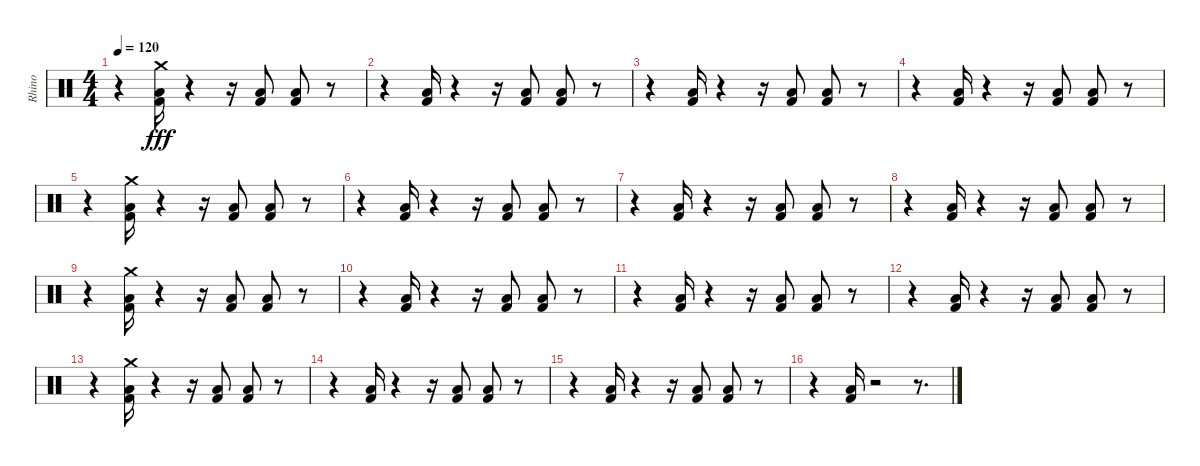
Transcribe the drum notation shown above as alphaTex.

\track ("Rhino" "Rhino") {instrument percussion}
\staff {score}
\articulation defaults
\ts (4 4)
\tempo 120
\tempo 92
\tempo 120
\clef neutral
\ks c
r.4{dy fff} ("Crash medium (hit)" "Low Floor Tom (hit)" "Kick (hit) 2").16 r.4 r.16 ("Low Floor Tom (hit)" "Kick (hit) 2").8 ("Low Floor Tom (hit)" "Kick (hit) 2").8 r.8 |
r.4 ("Low Floor Tom (hit)" "Kick (hit) 2").16 r.4 r.16 ("Low Floor Tom (hit)" "Kick (hit) 2").8 ("Low Floor Tom (hit)" "Kick (hit) 2").8 r.8 |
r.4 ("Low Floor Tom (hit)" "Kick (hit) 2").16 r.4 r.16 ("Low Floor Tom (hit)" "Kick (hit) 2").8 ("Low Floor Tom (hit)" "Kick (hit) 2").8 r.8 |
r.4 ("Low Floor Tom (hit)" "Kick (hit) 2").16 r.4 r.16 ("Low Floor Tom (hit)" "Kick (hit) 2").8 ("Low Floor Tom (hit)" "Kick (hit) 2").8 r.8 |
r.4 ("Crash medium (hit)" "Low Floor Tom (hit)" "Kick (hit) 2").16 r.4 r.16 ("Low Floor Tom (hit)" "Kick (hit) 2").8 ("Low Floor Tom (hit)" "Kick (hit) 2").8 r.8 |
r.4 ("Low Floor Tom (hit)" "Kick (hit) 2").16 r.4 r.16 ("Low Floor Tom (hit)" "Kick (hit) 2").8 ("Low Floor Tom (hit)" "Kick (hit) 2").8 r.8 |
r.4 ("Low Floor Tom (hit)" "Kick (hit) 2").16 r.4 r.16 ("Low Floor Tom (hit)" "Kick (hit) 2").8 ("Low Floor Tom (hit)" "Kick (hit) 2").8 r.8 |
r.4 ("Low Floor Tom (hit)" "Kick (hit) 2").16 r.4 r.16 ("Low Floor Tom (hit)" "Kick (hit) 2").8 ("Low Floor Tom (hit)" "Kick (hit) 2").8 r.8 |
r.4 ("Crash medium (hit)" "Low Floor Tom (hit)" "Kick (hit) 2").16 r.4 r.16 ("Low Floor Tom (hit)" "Kick (hit) 2").8 ("Low Floor Tom (hit)" "Kick (hit) 2").8 r.8 |
r.4 ("Low Floor Tom (hit)" "Kick (hit) 2").16 r.4 r.16 ("Low Floor Tom (hit)" "Kick (hit) 2").8 ("Low Floor Tom (hit)" "Kick (hit) 2").8 r.8 |
r.4 ("Low Floor Tom (hit)" "Kick (hit) 2").16 r.4 r.16 ("Low Floor Tom (hit)" "Kick (hit) 2").8 ("Low Floor Tom (hit)" "Kick (hit) 2").8 r.8 |
r.4 ("Low Floor Tom (hit)" "Kick (hit) 2").16 r.4 r.16 ("Low Floor Tom (hit)" "Kick (hit) 2").8 ("Low Floor Tom (hit)" "Kick (hit) 2").8 r.8 |
r.4 ("Crash medium (hit)" "Low Floor Tom (hit)" "Kick (hit) 2").16 r.4 r.16 ("Low Floor Tom (hit)" "Kick (hit) 2").8 ("Low Floor Tom (hit)" "Kick (hit) 2").8 r.8 |
r.4 ("Low Floor Tom (hit)" "Kick (hit) 2").16 r.4 r.16 ("Low Floor Tom (hit)" "Kick (hit) 2").8 ("Low Floor Tom (hit)" "Kick (hit) 2").8 r.8 |
r.4 ("Low Floor Tom (hit)" "Kick (hit) 2").16 r.4 r.16 ("Low Floor Tom (hit)" "Kick (hit) 2").8 ("Low Floor Tom (hit)" "Kick (hit) 2").8 r.8 |
r.4 ("Low Floor Tom (hit)" "Kick (hit) 2").16 r.2 r.8{d}
